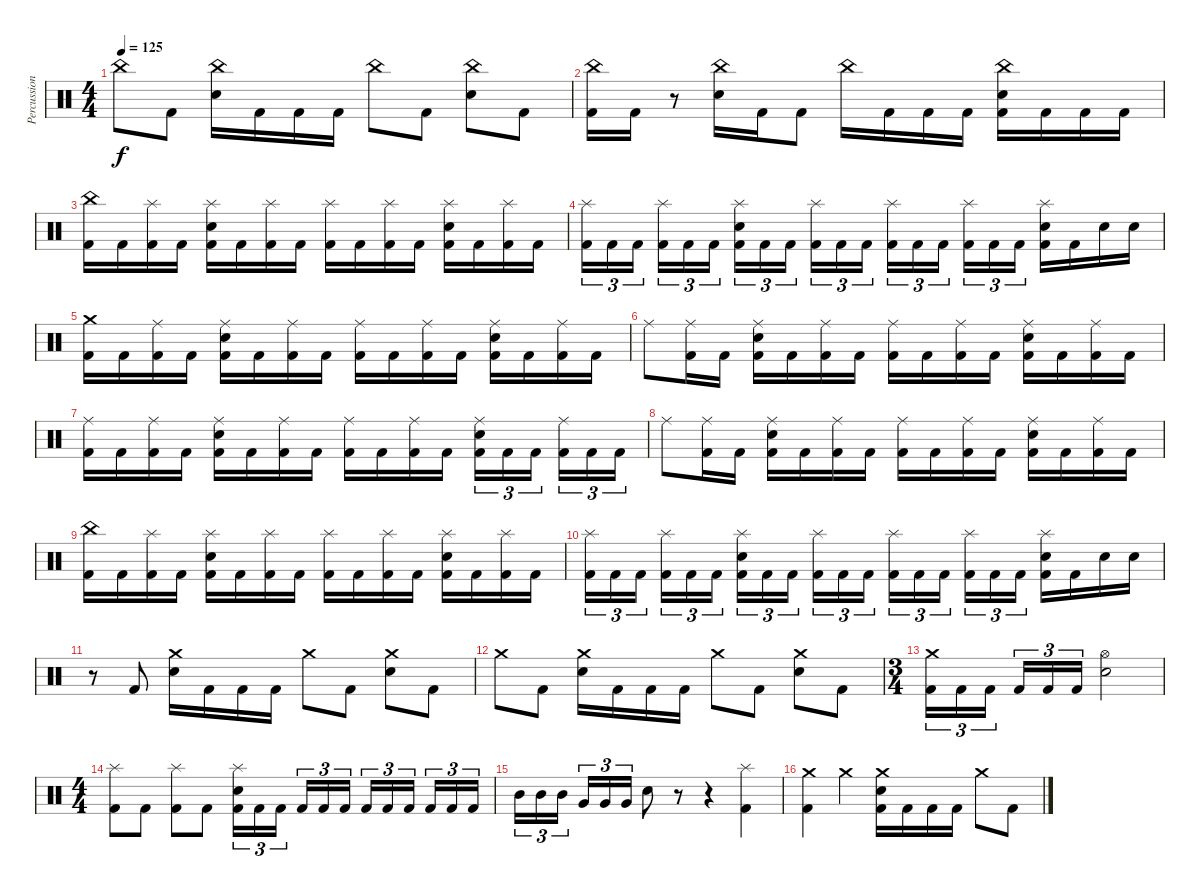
\track ("Percussion" "Percussion") {instrument percussion}
\staff {score}
\articulation defaults
\ts (4 4)
\tempo 125
\clef neutral
\ks c "China (hit)".8{dy f} "Kick (hit) 2".8
("China (hit)" "Electric Snare (hit)").16 "Kick (hit) 2".16 "Kick (hit) 2".16 "Kick (hit) 2".16 "China (hit)".8 "Kick (hit) 2".8 ("China (hit)" "Electric Snare (hit)").8 "Kick (hit) 2".8 |
("China (hit)" "Kick (hit) 2").16 "Kick (hit) 2".16 r.8 ("China (hit)" "Electric Snare (hit)").16 "Kick (hit) 2".16 "Kick (hit) 2".8 "China (hit)".16 "Kick (hit) 2".16 "Kick (hit) 2".16 "Kick (hit) 2".16 ("China (hit)" "Electric Snare (hit)" "Kick (hit) 2").16 "Kick (hit) 2".16 "Kick (hit) 2".16 "Kick (hit) 2".16 |
("China (hit)" "Kick (hit) 2").16 "Kick (hit) 2".16 ("Splash (hit)" "Kick (hit) 2").16 "Kick (hit) 2".16 ("Splash (hit)" "Electric Snare (hit)" "Kick (hit) 2").16 "Kick (hit) 2".16 ("Splash (hit)" "Kick (hit) 2").16 "Kick (hit) 2".16 ("Splash (hit)" "Kick (hit) 2").16 "Kick (hit) 2".16 ("Splash (hit)" "Kick (hit) 2").16 "Kick (hit) 2".16 ("Splash (hit)" "Electric Snare (hit)" "Kick (hit) 2").16 "Kick (hit) 2".16 ("Splash (hit)" "Kick (hit) 2").16 "Kick (hit) 2".16 |
("Splash (hit)" "Kick (hit) 2").16{tu (3 2)} "Kick (hit) 2".16{tu (3 2)} "Kick (hit) 2".16{tu (3 2) beam splitsecondary} ("Splash (hit)" "Kick (hit) 2").16{tu (3 2)} "Kick (hit) 2".16{tu (3 2)} "Kick (hit) 2".16{tu (3 2)} ("Splash (hit)" "Electric Snare (hit)" "Kick (hit) 2").16{tu (3 2)} "Kick (hit) 2".16{tu (3 2)} "Kick (hit) 2".16{tu (3 2) beam splitsecondary} ("Splash (hit)" "Kick (hit) 2").16{tu (3 2)} "Kick (hit) 2".16{tu (3 2)} "Kick (hit) 2".16{tu (3 2)} ("Splash (hit)" "Kick (hit) 2").16{tu (3 2)} "Kick (hit) 2".16{tu (3 2)} "Kick (hit) 2".16{tu (3 2) beam splitsecondary} ("Splash (hit)" "Kick (hit) 2").16{tu (3 2)} "Kick (hit) 2".16{tu (3 2)} "Kick (hit) 2".16{tu (3 2)} ("Splash (hit)" "Electric Snare (hit)" "Kick (hit) 2").16 "Kick (hit) 2".16 "Electric Snare (hit)".16 "Electric Snare (hit)".16 |
("Crash medium (hit)" "Kick (hit) 2").16 "Kick (hit) 2".16 ("Ride (middle)" "Kick (hit) 2").16 "Kick (hit) 2".16 ("Ride (middle)" "Electric Snare (hit)" "Kick (hit) 2").16 "Kick (hit) 2".16 ("Ride (middle)" "Kick (hit) 2").16 "Kick (hit) 2".16 ("Ride (middle)" "Kick (hit) 2").16 "Kick (hit) 2".16 ("Ride (middle)" "Kick (hit) 2").16 "Kick (hit) 2".16 ("Ride (middle)" "Electric Snare (hit)" "Kick (hit) 2").16 "Kick (hit) 2".16 ("Ride (middle)" "Kick (hit) 2").16 "Kick (hit) 2".16 |
"Ride (middle)".8 ("Ride (middle)" "Kick (hit) 2").16 "Kick (hit) 2".16 ("Ride (middle)" "Electric Snare (hit)" "Kick (hit) 2").16 "Kick (hit) 2".16 ("Ride (middle)" "Kick (hit) 2").16 "Kick (hit) 2".16 ("Ride (middle)" "Kick (hit) 2").16 "Kick (hit) 2".16 ("Ride (middle)" "Kick (hit) 2").16 "Kick (hit) 2".16 ("Ride (middle)" "Electric Snare (hit)" "Kick (hit) 2").16 "Kick (hit) 2".16 ("Ride (middle)" "Kick (hit) 2").16 "Kick (hit) 2".16 |
("Ride (middle)" "Kick (hit) 2").16 "Kick (hit) 2".16 ("Ride (middle)" "Kick (hit) 2").16 "Kick (hit) 2".16 ("Ride (middle)" "Electric Snare (hit)" "Kick (hit) 2").16 "Kick (hit) 2".16 ("Ride (middle)" "Kick (hit) 2").16 "Kick (hit) 2".16 ("Ride (middle)" "Kick (hit) 2").16 "Kick (hit) 2".16 ("Ride (middle)" "Kick (hit) 2").16 "Kick (hit) 2".16 ("Ride (middle)" "Electric Snare (hit)" "Kick (hit) 2").16{tu (3 2)} "Kick (hit) 2".16{tu (3 2)} "Kick (hit) 2".16{tu (3 2) beam splitsecondary} ("Ride (middle)" "Kick (hit) 2").16{tu (3 2)} "Kick (hit) 2".16{tu (3 2)} "Kick (hit) 2".16{tu (3 2)} |
"Ride (middle)".8 ("Ride (middle)" "Kick (hit) 2").16 "Kick (hit) 2".16 ("Ride (middle)" "Electric Snare (hit)" "Kick (hit) 2").16 "Kick (hit) 2".16 ("Ride (middle)" "Kick (hit) 2").16 "Kick (hit) 2".16 ("Ride (middle)" "Kick (hit) 2").16 "Kick (hit) 2".16 ("Ride (middle)" "Kick (hit) 2").16 "Kick (hit) 2".16 ("Ride (middle)" "Electric Snare (hit)" "Kick (hit) 2").16 "Kick (hit) 2".16 ("Ride (middle)" "Kick (hit) 2").16 "Kick (hit) 2".16 |
("China (hit)" "Kick (hit) 2").16 "Kick (hit) 2".16 ("Splash (hit)" "Kick (hit) 2").16 "Kick (hit) 2".16 ("Splash (hit)" "Electric Snare (hit)" "Kick (hit) 2").16 "Kick (hit) 2".16 ("Splash (hit)" "Kick (hit) 2").16 "Kick (hit) 2".16 ("Splash (hit)" "Kick (hit) 2").16 "Kick (hit) 2".16 ("Splash (hit)" "Kick (hit) 2").16 "Kick (hit) 2".16 ("Splash (hit)" "Electric Snare (hit)" "Kick (hit) 2").16 "Kick (hit) 2".16 ("Splash (hit)" "Kick (hit) 2").16 "Kick (hit) 2".16 |
("Splash (hit)" "Kick (hit) 2").16{tu (3 2)} "Kick (hit) 2".16{tu (3 2)} "Kick (hit) 2".16{tu (3 2) beam splitsecondary} ("Splash (hit)" "Kick (hit) 2").16{tu (3 2)} "Kick (hit) 2".16{tu (3 2)} "Kick (hit) 2".16{tu (3 2)} ("Splash (hit)" "Electric Snare (hit)" "Kick (hit) 2").16{tu (3 2)} "Kick (hit) 2".16{tu (3 2)} "Kick (hit) 2".16{tu (3 2) beam splitsecondary} ("Splash (hit)" "Kick (hit) 2").16{tu (3 2)} "Kick (hit) 2".16{tu (3 2)} "Kick (hit) 2".16{tu (3 2)} ("Splash (hit)" "Kick (hit) 2").16{tu (3 2)} "Kick (hit) 2".16{tu (3 2)} "Kick (hit) 2".16{tu (3 2) beam splitsecondary} ("Splash (hit)" "Kick (hit) 2").16{tu (3 2)} "Kick (hit) 2".16{tu (3 2)} "Kick (hit) 2".16{tu (3 2)} ("Splash (hit)" "Electric Snare (hit)" "Kick (hit) 2").16 "Kick (hit) 2".16 "Electric Snare (hit)".16 "Electric Snare (hit)".16 |
r.8 "Kick (hit) 2".8 ("Crash medium (hit)" "Electric Snare (hit)").16 "Kick (hit) 2".16 "Kick (hit) 2".16 "Kick (hit) 2".16 "Crash medium (hit)".8 "Kick (hit) 2".8 ("Crash medium (hit)" "Electric Snare (hit)").8 "Kick (hit) 2".8 |
"Crash medium (hit)".8 "Kick (hit) 2".8 ("Crash medium (hit)" "Electric Snare (hit)").16 "Kick (hit) 2".16 "Kick (hit) 2".16 "Kick (hit) 2".16 "Crash medium (hit)".8 "Kick (hit) 2".8 ("Crash medium (hit)" "Electric Snare (hit)").8 "Kick (hit) 2".8 |
\ts (3 4)
("Crash medium (hit)" "Kick (hit) 2").16{tu (3 2)} "Kick (hit) 2".16{tu (3 2)} "Kick (hit) 2".16{tu (3 2) beam splitsecondary} "Kick (hit) 2".16{tu (3 2)} "Kick (hit) 2".16{tu (3 2)} "Kick (hit) 2".16{tu (3 2)} ("Hi-Hat (open)" "Electric Snare (hit)").2 |
\ts (4 4)
("Splash (hit)" "Kick (hit) 2").8 "Kick (hit) 2".8 ("Splash (hit)" "Kick (hit) 2").8 "Kick (hit) 2".8 ("Splash (hit)" "Electric Snare (hit)" "Kick (hit) 2").16{tu (3 2)} "Kick (hit) 2".16{tu (3 2)} "Kick (hit) 2".16{tu (3 2) beam splitsecondary} "Kick (hit) 2".16{tu (3 2)} "Kick (hit) 2".16{tu (3 2)} "Kick (hit) 2".16{tu (3 2)} "Kick (hit) 2".16{tu (3 2)} "Kick (hit) 2".16{tu (3 2)} "Kick (hit) 2".16{tu (3 2) beam splitsecondary} "Kick (hit) 2".16{tu (3 2)} "Kick (hit) 2".16{tu (3 2)} "Kick (hit) 2".16{tu (3 2)} |
"Mid Tom (hit)".16{tu (3 2)} "Mid Tom (hit)".16{tu (3 2)} "Mid Tom (hit)".16{tu (3 2) beam splitsecondary} "Very Low Tom (hit)".16{tu (3 2)} "Very Low Tom (hit)".16{tu (3 2)} "Very Low Tom (hit)".16{tu (3 2)} "Electric Snare (hit)".8 r.8 r.4 ("Splash (hit)" "Kick (hit) 2").4 |
("Crash medium (hit)" "Kick (hit) 2").4 "Crash medium (hit)".4 ("Crash medium (hit)" "Electric Snare (hit)" "Kick (hit) 2").16 "Kick (hit) 2".16 "Kick (hit) 2".16 "Kick (hit) 2".16 "Crash medium (hit)".8 "Kick (hit) 2".8
